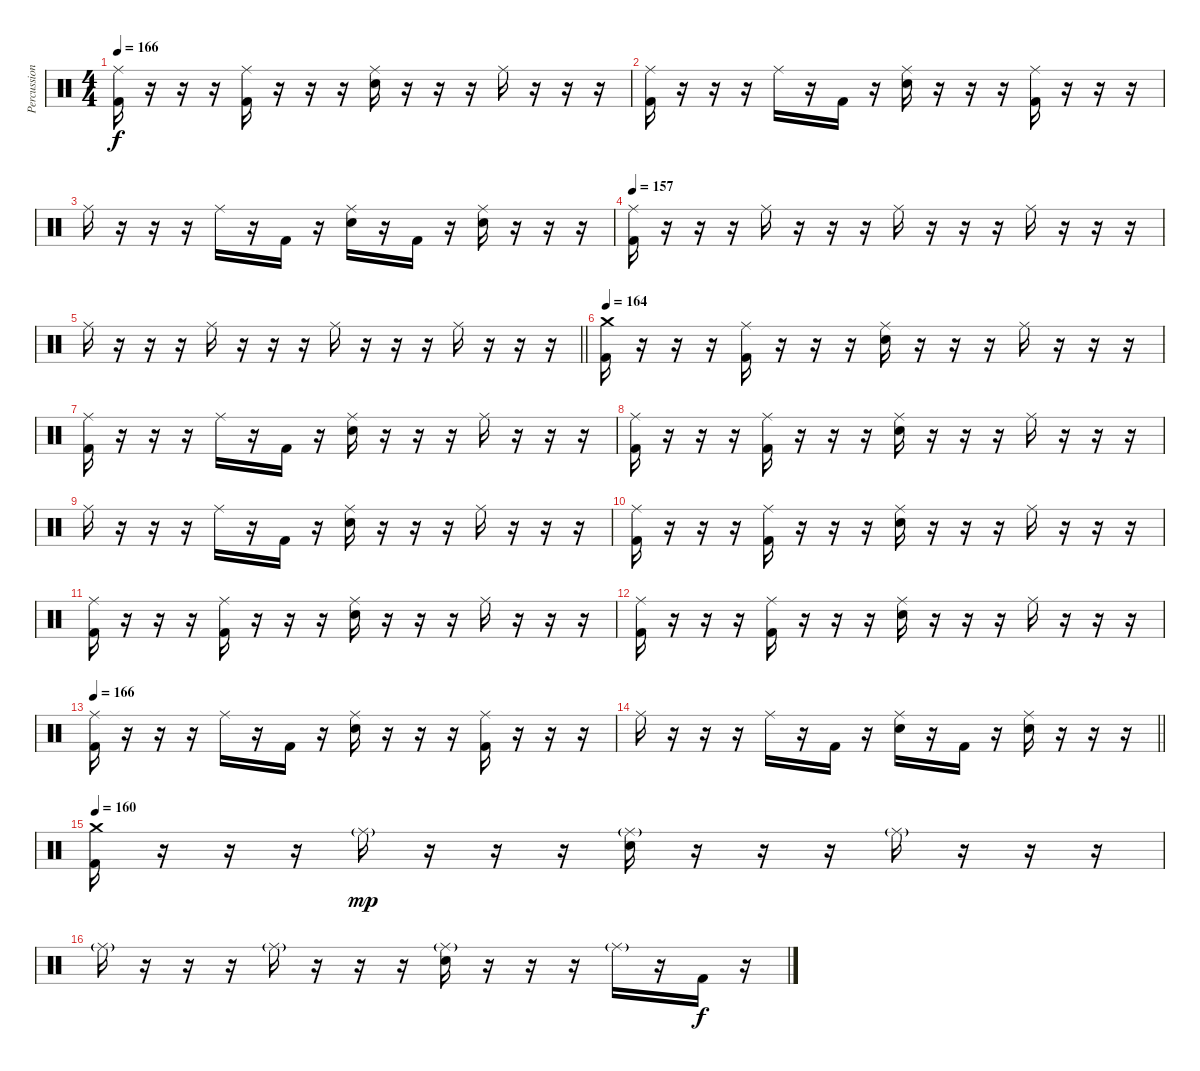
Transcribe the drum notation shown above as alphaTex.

\track ("Percussion" "Percussion") {instrument percussion}
\staff {score}
\articulation defaults
\ts (4 4)
\tempo 166
\clef neutral
\ks c
("Ride (middle)" "Kick (hit) 2").16{dy f} r.16 r.16 r.16 ("Ride (middle)" "Kick (hit) 2").16 r.16 r.16 r.16 ("Ride (middle)" "Electric Snare (hit)").16 r.16 r.16 r.16 "Ride (middle)".16 r.16 r.16 r.16 |
("Ride (middle)" "Kick (hit) 2").16 r.16 r.16 r.16 "Ride (middle)".16 r.16 "Kick (hit) 2".16 r.16 ("Ride (middle)" "Electric Snare (hit)").16 r.16 r.16 r.16 ("Ride (middle)" "Kick (hit) 2").16 r.16 r.16 r.16 |
"Ride (middle)".16 r.16 r.16 r.16 "Ride (middle)".16 r.16 "Kick (hit) 2".16 r.16 ("Ride (middle)" "Electric Snare (hit)").16 r.16 "Kick (hit) 2".16 r.16 ("Ride (middle)" "Electric Snare (hit)").16 r.16 r.16 r.16 |
\tempo 157
("Ride (middle)" "Kick (hit) 2").16 r.16 r.16 r.16 "Ride (middle)".16 r.16 r.16 r.16 "Ride (middle)".16 r.16 r.16 r.16 "Ride (middle)".16 r.16 r.16 r.16 |
\barLineRight lightlight "Ride (middle)".16
r.16 r.16 r.16 "Ride (middle)".16 r.16 r.16 r.16 "Ride (middle)".16 r.16 r.16 r.16 "Ride (middle)".16 r.16 r.16 r.16 |
\section ("" "")
\tempo 164
("Crash medium (hit)" "Kick (hit) 2").16 r.16 r.16 r.16 ("Ride (middle)" "Kick (hit) 2").16 r.16 r.16 r.16 ("Ride (middle)" "Electric Snare (hit)").16 r.16 r.16 r.16 "Ride (middle)".16 r.16 r.16 r.16 |
("Ride (middle)" "Kick (hit) 2").16 r.16 r.16 r.16 "Ride (middle)".16 r.16 "Kick (hit) 2".16 r.16 ("Ride (middle)" "Electric Snare (hit)").16 r.16 r.16 r.16 "Ride (middle)".16 r.16 r.16 r.16 |
("Ride (middle)" "Kick (hit) 2").16 r.16 r.16 r.16 ("Ride (middle)" "Kick (hit) 2").16 r.16 r.16 r.16 ("Ride (middle)" "Electric Snare (hit)").16 r.16 r.16 r.16 "Ride (middle)".16 r.16 r.16 r.16 |
"Ride (middle)".16 r.16 r.16 r.16 "Ride (middle)".16 r.16 "Kick (hit) 2".16 r.16 ("Ride (middle)" "Electric Snare (hit)").16 r.16 r.16 r.16 "Ride (middle)".16 r.16 r.16 r.16 |
("Ride (middle)" "Kick (hit) 2").16 r.16 r.16 r.16 ("Ride (middle)" "Kick (hit) 2").16 r.16 r.16 r.16 ("Ride (middle)" "Electric Snare (hit)").16 r.16 r.16 r.16 "Ride (middle)".16 r.16 r.16 r.16 |
("Ride (middle)" "Kick (hit) 2").16 r.16 r.16 r.16 ("Ride (middle)" "Kick (hit) 2").16 r.16 r.16 r.16 ("Ride (middle)" "Electric Snare (hit)").16 r.16 r.16 r.16 "Ride (middle)".16 r.16 r.16 r.16 |
("Ride (middle)" "Kick (hit) 2").16 r.16 r.16 r.16 ("Ride (middle)" "Kick (hit) 2").16 r.16 r.16 r.16 ("Ride (middle)" "Electric Snare (hit)").16 r.16 r.16 r.16 "Ride (middle)".16 r.16 r.16 r.16 |
\tempo 166
("Ride (middle)" "Kick (hit) 2").16 r.16 r.16 r.16 "Ride (middle)".16 r.16 "Kick (hit) 2".16 r.16 ("Ride (middle)" "Electric Snare (hit)").16 r.16 r.16 r.16 ("Ride (middle)" "Kick (hit) 2").16 r.16 r.16 r.16 |
\barLineRight lightlight "Ride (middle)".16
r.16 r.16 r.16 "Ride (middle)".16 r.16 "Kick (hit) 2".16 r.16 ("Ride (middle)" "Electric Snare (hit)").16 r.16 "Kick (hit) 2".16 r.16 ("Ride (middle)" "Electric Snare (hit)").16 r.16 r.16 r.16 |
\section ("" "")
\tempo 160
("Crash medium (hit)" "Kick (hit) 2").16 r.16 r.16 r.16 "Ride (middle)"{g}.16{dy mp} r.16 r.16 r.16 ("Ride (middle)"{g} "Electric Snare (hit)").16 r.16 r.16 r.16 "Ride (middle)"{g}.16 r.16 r.16 r.16 |
"Ride (middle)"{g}.16 r.16 r.16 r.16 "Ride (middle)"{g}.16 r.16 r.16 r.16 ("Ride (middle)"{g} "Electric Snare (hit)").16 r.16 r.16 r.16 "Ride (middle)"{g}.16 r.16 "Kick (hit) 2".16{dy f} r.16
